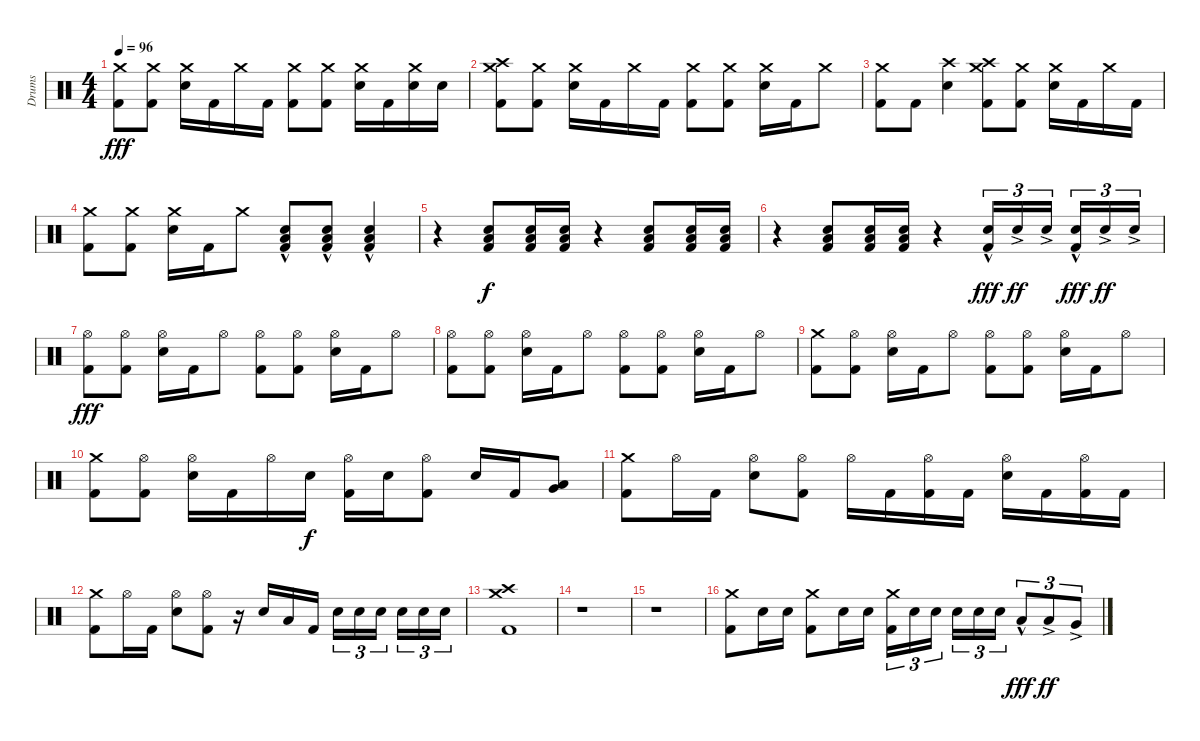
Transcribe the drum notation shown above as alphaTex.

\track ("Drums" "Drums") {instrument percussion}
\staff {score}
\articulation defaults
\ts (4 4)
\tempo 96
\clef neutral
\ks c
("Crash medium (hit)" "Kick (hit) 2").8{dy fff} ("Crash medium (hit)" "Kick (hit) 2").8 ("Crash medium (hit)" "Electric Snare (hit)").16 "Kick (hit) 2".16 "Crash medium (hit)".16 "Kick (hit) 2".16 ("Crash medium (hit)" "Kick (hit) 2").8 ("Crash medium (hit)" "Kick (hit) 2").8 ("Crash medium (hit)" "Electric Snare (hit)").16 "Kick (hit) 2".16 ("Crash medium (hit)" "Electric Snare (hit)").16 "Electric Snare (hit)".16 |
("Crash medium (hit)" "Crash high (hit)" "Kick (hit) 2").8 ("Crash medium (hit)" "Kick (hit) 2").8 ("Crash medium (hit)" "Electric Snare (hit)").16 "Kick (hit) 2".16 "Crash medium (hit)".16 "Kick (hit) 2".16 ("Crash medium (hit)" "Kick (hit) 2").8 ("Crash medium (hit)" "Kick (hit) 2").8 ("Crash medium (hit)" "Electric Snare (hit)").16 "Kick (hit) 2".16 "Crash medium (hit)".8 |
("Crash medium (hit)" "Kick (hit) 2").8 "Kick (hit) 2".8 ("Crash high (hit)" "Electric Snare (hit)").4 ("Crash medium (hit)" "Crash high (hit)" "Kick (hit) 2").8 ("Crash medium (hit)" "Kick (hit) 2").8 ("Crash medium (hit)" "Electric Snare (hit)").16 "Kick (hit) 2".16 "Crash medium (hit)".16 "Kick (hit) 2".16 |
("Crash medium (hit)" "Kick (hit) 2").8 ("Crash medium (hit)" "Kick (hit) 2").8 ("Crash medium (hit)" "Electric Snare (hit)").16 "Kick (hit) 2".16 "Crash medium (hit)".8 ("Electric Snare (hit)"{hac} "Low Floor Tom (hit)"{hac} "Kick (hit) 2"{hac}).8 ("Electric Snare (hit)"{hac} "Low Floor Tom (hit)"{hac} "Kick (hit) 2"{hac}).8 ("Electric Snare (hit)"{hac} "Low Floor Tom (hit)"{hac} "Kick (hit) 2"{hac}).4 |
r.4 ("Electric Snare (hit)" "Low Floor Tom (hit)" "Kick (hit) 2").8{dy f} ("Electric Snare (hit)" "Low Floor Tom (hit)" "Kick (hit) 2").16 ("Electric Snare (hit)" "Low Floor Tom (hit)" "Kick (hit) 2").16 r.4 ("Electric Snare (hit)" "Low Floor Tom (hit)" "Kick (hit) 2").8 ("Electric Snare (hit)" "Low Floor Tom (hit)" "Kick (hit) 2").16 ("Electric Snare (hit)" "Low Floor Tom (hit)" "Kick (hit) 2").16 |
r.4 ("Electric Snare (hit)" "Low Floor Tom (hit)" "Kick (hit) 2").8 ("Electric Snare (hit)" "Low Floor Tom (hit)" "Kick (hit) 2").16 ("Electric Snare (hit)" "Low Floor Tom (hit)" "Kick (hit) 2").16 r.4 ("Electric Snare (hit)"{hac} "Kick (hit) 2"{hac}).16{tu (3 2) dy fff} "Electric Snare (hit)"{ac}.16{tu (3 2) dy ff} "Electric Snare (hit)"{ac}.16{tu (3 2) beam splitsecondary} ("Electric Snare (hit)"{hac} "Kick (hit) 2"{hac}).16{tu (3 2) dy fff} "Electric Snare (hit)"{ac}.16{tu (3 2) dy ff} "Electric Snare (hit)"{ac}.16{tu (3 2)} |
("Hi-Hat (open)" "Kick (hit) 2").8{dy fff} ("Hi-Hat (open)" "Kick (hit) 2").8 ("Hi-Hat (open)" "Electric Snare (hit)").16 "Kick (hit) 2".16 "Hi-Hat (open)".8 ("Hi-Hat (open)" "Kick (hit) 2").8 ("Hi-Hat (open)" "Kick (hit) 2").8 ("Hi-Hat (open)" "Electric Snare (hit)").16 "Kick (hit) 2".16 "Hi-Hat (open)".8 |
("Hi-Hat (open)" "Kick (hit) 2").8 ("Hi-Hat (open)" "Kick (hit) 2").8 ("Hi-Hat (open)" "Electric Snare (hit)").16 "Kick (hit) 2".16 "Hi-Hat (open)".8 ("Hi-Hat (open)" "Kick (hit) 2").8 ("Hi-Hat (open)" "Kick (hit) 2").8 ("Hi-Hat (open)" "Electric Snare (hit)").16 "Kick (hit) 2".16 "Hi-Hat (open)".8 |
("Crash medium (hit)" "Kick (hit) 2").8 ("Hi-Hat (open)" "Kick (hit) 2").8 ("Hi-Hat (open)" "Electric Snare (hit)").16 "Kick (hit) 2".16 "Hi-Hat (open)".8 ("Hi-Hat (open)" "Kick (hit) 2").8 ("Hi-Hat (open)" "Kick (hit) 2").8 ("Hi-Hat (open)" "Electric Snare (hit)").16 "Kick (hit) 2".16 "Hi-Hat (open)".8 |
("Crash medium (hit)" "Kick (hit) 2").8 ("Hi-Hat (open)" "Kick (hit) 2").8 ("Hi-Hat (open)" "Electric Snare (hit)").16 "Kick (hit) 2".16 "Hi-Hat (open)".16 "Electric Snare (hit)".16{dy f} ("Hi-Hat (open)" "Kick (hit) 2").16 "Electric Snare (hit)".16 ("Hi-Hat (open)" "Kick (hit) 2").8 "Electric Snare (hit)".16 "Kick (hit) 2".16 ("Low Tom (hit)" "Very Low Tom (hit)").8 |
("Crash medium (hit)" "Kick (hit) 2").8 "Hi-Hat (open)".16 "Kick (hit) 2".16 ("Hi-Hat (open)" "Electric Snare (hit)").8 ("Hi-Hat (open)" "Kick (hit) 2").8 "Hi-Hat (open)".16 "Kick (hit) 2".16 ("Hi-Hat (open)" "Kick (hit) 2").16 "Kick (hit) 2".16 ("Hi-Hat (open)" "Electric Snare (hit)").16 "Kick (hit) 2".16 ("Hi-Hat (open)" "Kick (hit) 2").16 "Kick (hit) 2".16 |
("Crash medium (hit)" "Kick (hit) 2").8 "Hi-Hat (open)".16 "Kick (hit) 2".16 ("Hi-Hat (open)" "Electric Snare (hit)").8 ("Hi-Hat (open)" "Kick (hit) 2").8 r.16 "Electric Snare (hit)".16 "Low Tom (hit)".16 "Kick (hit) 2".16 "Electric Snare (hit)".16{tu (3 2)} "Electric Snare (hit)".16{tu (3 2)} "Electric Snare (hit)".16{tu (3 2) beam splitsecondary} "Electric Snare (hit)".16{tu (3 2)} "Electric Snare (hit)".16{tu (3 2)} "Electric Snare (hit)".16{tu (3 2)} |
("Crash medium (hit)" "Crash high (hit)" "Kick (hit) 2").1 |
r.1 |
r.1 |
("Crash medium (hit)" "Kick (hit) 2").8 "Electric Snare (hit)".16 "Electric Snare (hit)".16 ("Crash medium (hit)" "Kick (hit) 2").8 "Electric Snare (hit)".16 "Electric Snare (hit)".16 ("Crash medium (hit)" "Kick (hit) 2").16{tu (3 2)} "Electric Snare (hit)".16{tu (3 2)} "Electric Snare (hit)".16{tu (3 2) beam splitsecondary} "Electric Snare (hit)".16{tu (3 2)} "Electric Snare (hit)".16{tu (3 2)} "Electric Snare (hit)".16{tu (3 2)} "Low Floor Tom (hit)"{hac}.8{tu (3 2) dy fff} "Low Floor Tom (hit)"{ac}.8{tu (3 2) dy ff} "Very Low Tom (hit)"{ac}.8{tu (3 2)}
